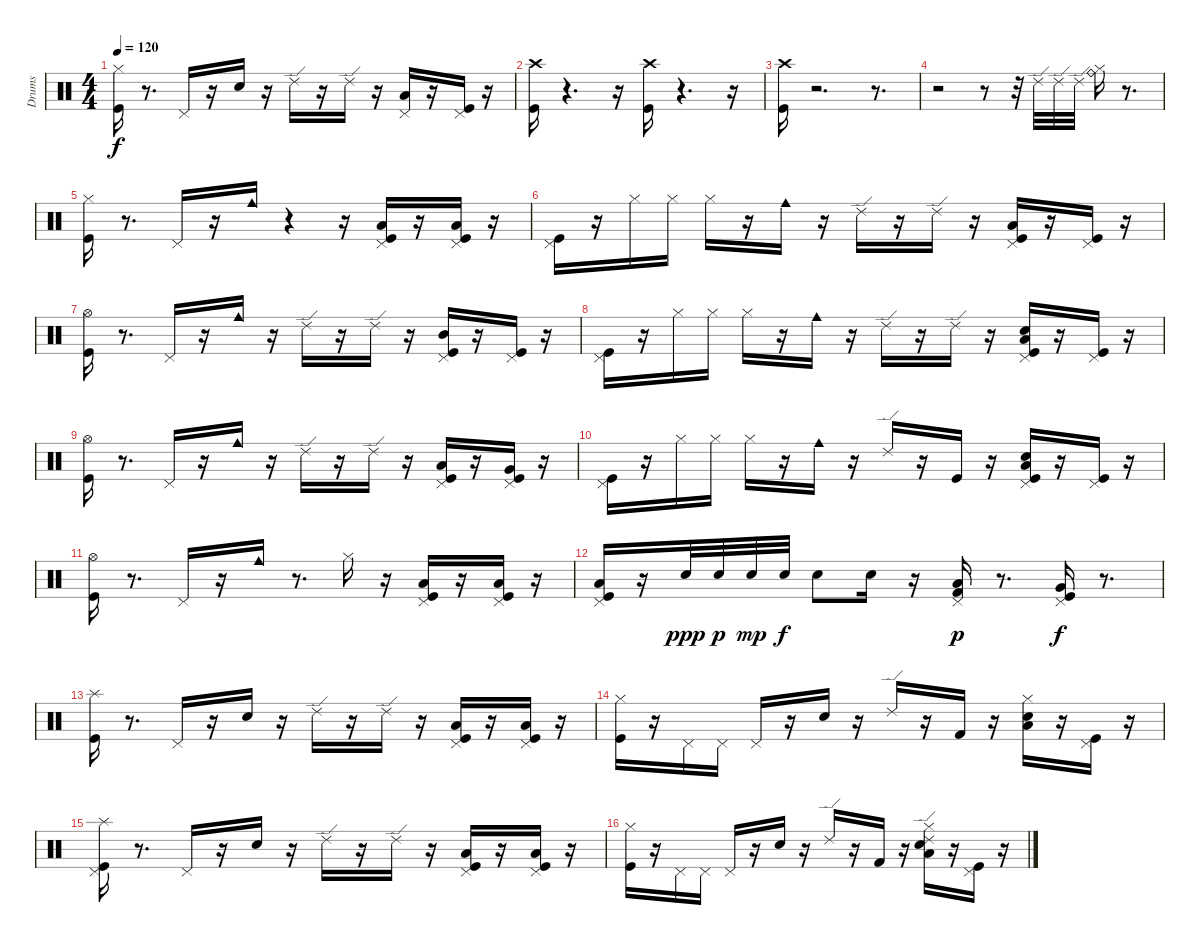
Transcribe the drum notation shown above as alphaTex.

\track ("Drums" "Drums") {instrument percussion}
\staff {score}
\articulation defaults
\ts (4 4)
\tempo 120
\clef neutral
\ks c
("Hi-Hat (closed)" "Kick (hit)").16{dy f} r.8{d} "Pedal Hi-Hat (hit)".16 r.16 "Electric Snare (hit)".16 r.16 "Ride (edge) 2".16 r.16 "Ride (edge) 2".16 r.16 ("Pedal Hi-Hat (hit)" "Low Tom (hit)").16 r.16 ("Pedal Hi-Hat (hit)" "Kick (hit)").16 r.16 |
("Crash high (hit)" "Kick (hit)").16 r.4{d} r.16 ("Crash high (hit)" "Kick (hit)").16 r.4{d} r.16 |
("Crash high (hit)" "Kick (hit)").16 r.2{d} r.8{d} |
r.2 r.8 r.32 "Ride (edge) 2".32 "Ride (edge) 2".32 "Ride (edge) 2".32 ("Hi-Hat (closed)" "Ride (bell)").16 r.8{d} |
("Hi-Hat (closed)" "Kick (hit)").16 r.8{d} "Pedal Hi-Hat (hit)".16 r.16 "Cowbell medium (hit)".16 r.4 r.16 ("Pedal Hi-Hat (hit)" "Kick (hit)" "Low Tom (hit)").16 r.16 ("Kick (hit)" "Pedal Hi-Hat (hit)" "Low Tom (hit)").16 r.16 |
("Pedal Hi-Hat (hit)" "Kick (hit)").16 r.16 "Hi-Hat (closed)".16 "Hi-Hat (closed)".16 "Hi-Hat (closed)".16 r.16 "Cowbell medium (hit)".16 r.16 "Ride (edge) 2".16 r.16 "Ride (edge) 2".16 r.16 ("Pedal Hi-Hat (hit)" "Kick (hit)" "Low Tom (hit)").16 r.16 ("Kick (hit)" "Pedal Hi-Hat (hit)").16 r.16 |
("Hi-Hat (open)" "Kick (hit)").16 r.8{d} "Pedal Hi-Hat (hit)".16 r.16 "Cowbell medium (hit)".16 r.16 "Ride (edge) 2".16 r.16 "Ride (edge) 2".16 r.16 ("Pedal Hi-Hat (hit)" "Kick (hit)" "Mid Tom (hit)").16 r.16 ("Pedal Hi-Hat (hit)" "Kick (hit)").16 r.16 |
("Pedal Hi-Hat (hit)" "Kick (hit)").16 r.16 "Hi-Hat (closed)".16 "Hi-Hat (closed)".16 "Hi-Hat (closed)".16 r.16 "Cowbell medium (hit)".16 r.16 "Ride (edge) 2".16 r.16 "Ride (edge) 2".16 r.16 ("Electric Snare (hit)" "Pedal Hi-Hat (hit)" "Kick (hit)" "Low Tom (hit)").16 r.16 ("Kick (hit)" "Pedal Hi-Hat (hit)").16 r.16 |
("Hi-Hat (open)" "Kick (hit)").16 r.8{d} "Pedal Hi-Hat (hit)".16 r.16 "Cowbell medium (hit)".16 r.16 "Ride (edge) 2".16 r.16 "Ride (edge) 2".16 r.16 ("Pedal Hi-Hat (hit)" "Kick (hit)" "Low Tom (hit)").16 r.16 ("Kick (hit)" "Pedal Hi-Hat (hit)" "Very Low Tom (hit)").16 r.16 |
("Pedal Hi-Hat (hit)" "Kick (hit)").16 r.16 "Hi-Hat (closed)".16 "Hi-Hat (closed)".16 "Hi-Hat (closed)".16 r.16 "Cowbell medium (hit)".16 r.16 "Ride (edge) 2".16 r.16 "Kick (hit)".16 r.16 ("Electric Snare (hit)" "Pedal Hi-Hat (hit)" "Kick (hit)" "Low Tom (hit)").16 r.16 ("Kick (hit)" "Pedal Hi-Hat (hit)").16 r.16 |
("Hi-Hat (open)" "Kick (hit)").16 r.8{d} "Pedal Hi-Hat (hit)".16 r.16 "Cowbell medium (hit)".16 r.8{d} "Hi-Hat (closed)".16 r.16 ("Pedal Hi-Hat (hit)" "Kick (hit)" "Low Tom (hit)").16 r.16 ("Pedal Hi-Hat (hit)" "Kick (hit)" "Low Tom (hit)").16 r.16 |
("Low Floor Tom (hit)" "Pedal Hi-Hat (hit)" "Kick (hit)").16 r.16 "Electric Snare (hit)".32{dy ppp} "Electric Snare (hit)".32{dy p} "Electric Snare (hit)".32{dy mp} "Electric Snare (hit)".32{dy f} "Electric Snare (hit)".8 "Electric Snare (hit)".16 r.16 ("Pedal Hi-Hat (hit)" "Kick (hit) 2" "Low Tom (hit)").16{dy p} r.8{d} ("Pedal Hi-Hat (hit)" "Kick (hit)" "Very Low Tom (hit)").16{dy f} r.8{d} |
("Kick (hit)" "Splash (hit)").16 r.8{d} "Pedal Hi-Hat (hit)".16 r.16 "Electric Snare (hit)".16 r.16 "Ride (edge) 2".16 r.16 "Ride (edge) 2".16 r.16 ("Kick (hit)" "Pedal Hi-Hat (hit)" "Low Tom (hit)").16 r.16 ("Kick (hit)" "Pedal Hi-Hat (hit)" "Low Tom (hit)").16 r.16 |
("Hi-Hat (closed)" "Kick (hit)").16 r.16 "Pedal Hi-Hat (hit)".16 "Pedal Hi-Hat (hit)".16 "Pedal Hi-Hat (hit)".16 r.16 "Electric Snare (hit)".16 r.16 "Ride (edge) 2".16 r.16 "Kick (hit) 2".16 r.16 ("Hi-Hat (closed)" "Low Tom (hit)" "Electric Snare (hit)").16 r.16 ("Pedal Hi-Hat (hit)" "Kick (hit)").16 r.16 |
("Pedal Hi-Hat (hit)" "Splash (hit)" "Kick (hit)").16 r.8{d} "Pedal Hi-Hat (hit)".16 r.16 "Electric Snare (hit)".16 r.16 "Ride (edge) 2".16 r.16 "Ride (edge) 2".16 r.16 ("Kick (hit)" "Pedal Hi-Hat (hit)" "Low Tom (hit)").16 r.16 ("Kick (hit)" "Pedal Hi-Hat (hit)" "Low Tom (hit)").16 r.16 |
("Hi-Hat (closed)" "Kick (hit)").16 r.16 "Pedal Hi-Hat (hit)".16 "Pedal Hi-Hat (hit)".16 "Pedal Hi-Hat (hit)".16 r.16 "Electric Snare (hit)".16 r.16 "Ride (edge) 2".16 r.16 "Kick (hit) 2".16 r.16 ("Ride (edge) 2" "Hi-Hat (closed)" "Low Tom (hit)" "Electric Snare (hit)").16 r.16 ("Pedal Hi-Hat (hit)" "Kick (hit)").16 r.16
